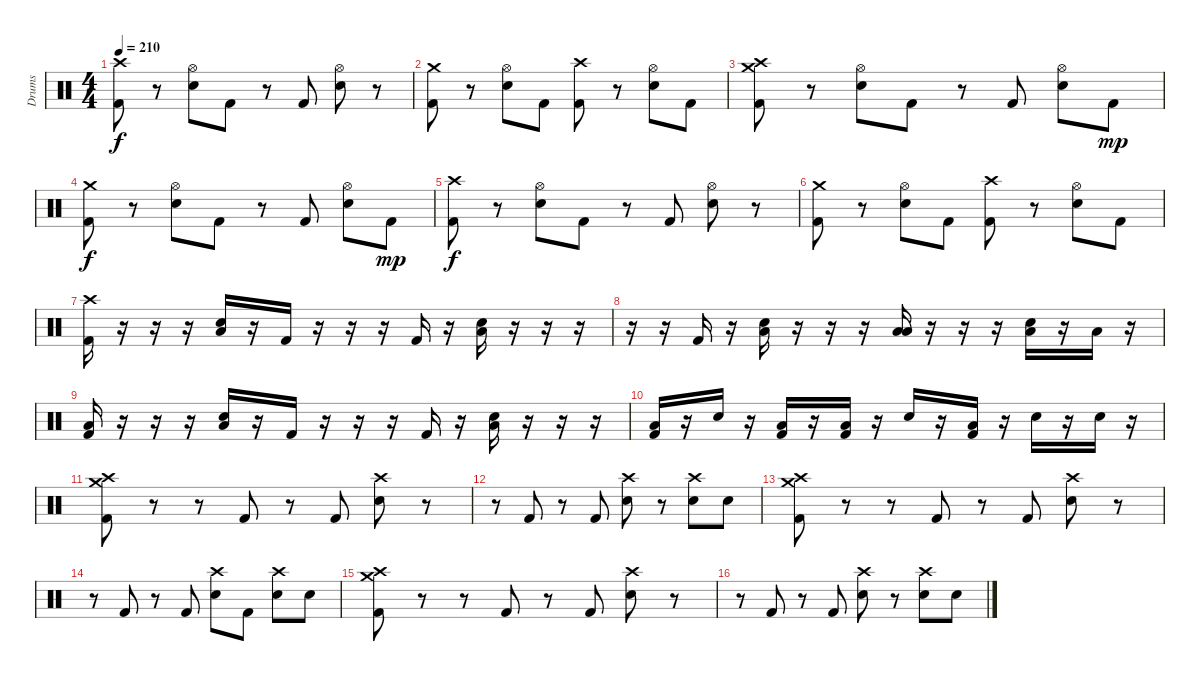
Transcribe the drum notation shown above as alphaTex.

\track ("Drums" "Drums") {instrument percussion}
\staff {score}
\articulation defaults
\ts (4 4)
\tempo 210
\clef neutral
\ks c
("Crash high (hit)" "Kick (hit) 2").8{dy f} r.8 ("Hi-Hat (open)" "Electric Snare (hit)").8 "Kick (hit) 2".8 r.8 "Kick (hit) 2".8 ("Hi-Hat (open)" "Electric Snare (hit)").8 r.8 |
("Crash medium (hit)" "Kick (hit) 2").8 r.8 ("Hi-Hat (open)" "Electric Snare (hit)").8 "Kick (hit) 2".8 ("Crash high (hit)" "Kick (hit) 2").8 r.8 ("Hi-Hat (open)" "Electric Snare (hit)").8 "Kick (hit) 2".8 |
("Crash high (hit)" "Crash medium (hit)" "Kick (hit) 2").8 r.8 ("Hi-Hat (open)" "Electric Snare (hit)").8 "Kick (hit) 2".8 r.8 "Kick (hit) 2".8 ("Hi-Hat (open)" "Electric Snare (hit)").8 "Kick (hit) 2".8{dy mp} |
("Crash medium (hit)" "Kick (hit) 2").8{dy f} r.8 ("Hi-Hat (open)" "Electric Snare (hit)").8 "Kick (hit) 2".8 r.8 "Kick (hit) 2".8 ("Hi-Hat (open)" "Electric Snare (hit)").8 "Kick (hit) 2".8{dy mp} |
("Crash high (hit)" "Kick (hit) 2").8{dy f} r.8 ("Hi-Hat (open)" "Electric Snare (hit)").8 "Kick (hit) 2".8 r.8 "Kick (hit) 2".8 ("Hi-Hat (open)" "Electric Snare (hit)").8 r.8 |
("Crash medium (hit)" "Kick (hit) 2").8 r.8 ("Hi-Hat (open)" "Electric Snare (hit)").8 "Kick (hit) 2".8 ("Crash high (hit)" "Kick (hit) 2").8 r.8 ("Hi-Hat (open)" "Electric Snare (hit)").8 "Kick (hit) 2".8 |
("Crash high (hit)" "Kick (hit) 2").16 r.16 r.16 r.16 ("Low Floor Tom (hit)" "Electric Snare (hit)").16 r.16 "Kick (hit) 2".16 r.16 r.16 r.16 "Kick (hit) 2".16 r.16 ("Low Floor Tom (hit)" "Electric Snare (hit)").16 r.16 r.16 r.16 |
r.16 r.16 "Kick (hit) 2".16 r.16 ("Low Floor Tom (hit)" "Electric Snare (hit)").16 r.16 r.16 r.16 ("Low Floor Tom (hit)" "Low Floor Tom (hit)").16 r.16 r.16 r.16 ("Low Floor Tom (hit)" "Electric Snare (hit)").16 r.16 "Low Floor Tom (hit)".16 r.16 |
("Low Floor Tom (hit)" "Kick (hit) 2").16 r.16 r.16 r.16 ("Low Floor Tom (hit)" "Electric Snare (hit)").16 r.16 "Kick (hit) 2".16 r.16 r.16 r.16 "Kick (hit) 2".16 r.16 ("Low Floor Tom (hit)" "Electric Snare (hit)").16 r.16 r.16 r.16 |
("Low Floor Tom (hit)" "Kick (hit) 2").16 r.16 "Electric Snare (hit)".16 r.16 ("Low Floor Tom (hit)" "Kick (hit) 2").16 r.16 ("Low Floor Tom (hit)" "Kick (hit) 2").16 r.16 "Electric Snare (hit)".16 r.16 ("Low Floor Tom (hit)" "Kick (hit) 2").16 r.16 "Electric Snare (hit)".16 r.16 "Electric Snare (hit)".16 r.16 |
("Crash high (hit)" "Crash medium (hit)" "Kick (hit) 2").8 r.8 r.8 "Kick (hit) 2".8 r.8 "Kick (hit) 2".8 ("Crash high (hit)" "Electric Snare (hit)").8 r.8 |
r.8 "Kick (hit) 2".8 r.8 "Kick (hit) 2".8 ("Crash high (hit)" "Electric Snare (hit)").8 r.8 ("Crash high (hit)" "Electric Snare (hit)").8 "Electric Snare (hit)".8 |
("Crash high (hit)" "Crash medium (hit)" "Kick (hit) 2").8 r.8 r.8 "Kick (hit) 2".8 r.8 "Kick (hit) 2".8 ("Crash high (hit)" "Electric Snare (hit)").8 r.8 |
r.8 "Kick (hit) 2".8 r.8 "Kick (hit) 2".8 ("Crash high (hit)" "Electric Snare (hit)").8 "Kick (hit) 2".8 ("Crash high (hit)" "Electric Snare (hit)").8 "Electric Snare (hit)".8 |
("Crash high (hit)" "Crash medium (hit)" "Kick (hit) 2").8 r.8 r.8 "Kick (hit) 2".8 r.8 "Kick (hit) 2".8 ("Crash high (hit)" "Electric Snare (hit)").8 r.8 |
r.8 "Kick (hit) 2".8 r.8 "Kick (hit) 2".8 ("Crash high (hit)" "Electric Snare (hit)").8 r.8 ("Crash high (hit)" "Electric Snare (hit)").8 "Electric Snare (hit)".8
